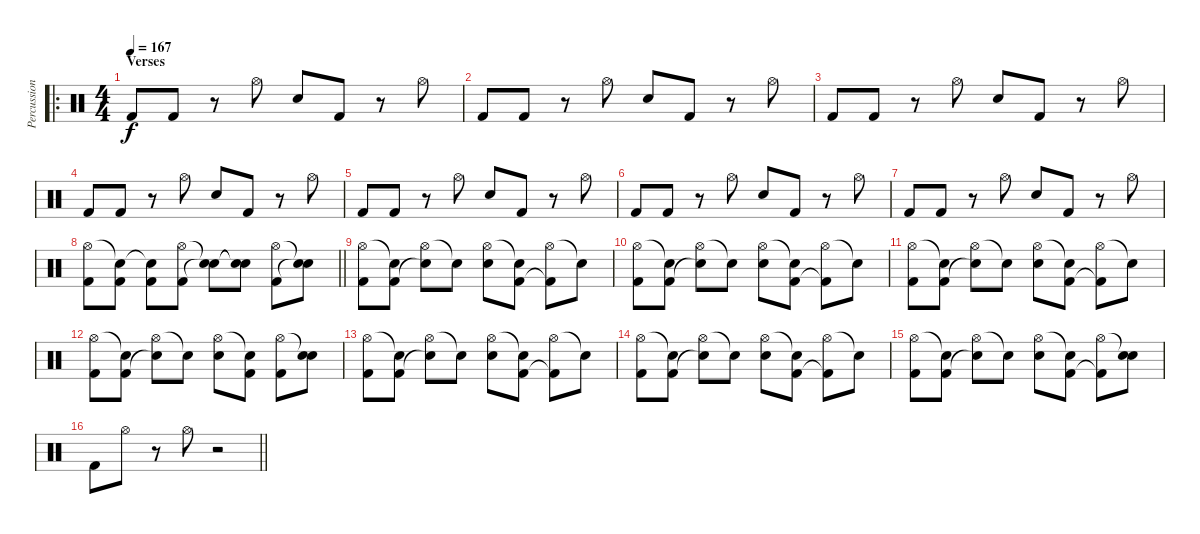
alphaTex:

\track ("Percussion" "Percussion") {instrument percussion}
\staff {score}
\articulation defaults
\ro
\ts (4 4)
\section ("" "Verses")
\tempo 167
\clef neutral
\ks c "Kick (hit) 2".8{dy f} "Kick (hit) 2".8
r.8 "Hi-Hat (open)".8 "Electric Snare (hit)".8 "Kick (hit) 2".8 r.8 "Hi-Hat (open)".8 |
"Kick (hit) 2".8 "Kick (hit) 2".8 r.8 "Hi-Hat (open)".8 "Electric Snare (hit)".8 "Kick (hit) 2".8 r.8 "Hi-Hat (open)".8 |
"Kick (hit) 2".8 "Kick (hit) 2".8 r.8 "Hi-Hat (open)".8 "Electric Snare (hit)".8 "Kick (hit) 2".8 r.8 "Hi-Hat (open)".8 |
"Kick (hit) 2".8 "Kick (hit) 2".8 r.8 "Hi-Hat (open)".8 "Electric Snare (hit)".8 "Kick (hit) 2".8 r.8 "Hi-Hat (open)".8 |
"Kick (hit) 2".8 "Kick (hit) 2".8 r.8 "Hi-Hat (open)".8 "Electric Snare (hit)".8 "Kick (hit) 2".8 r.8 "Hi-Hat (open)".8 |
"Kick (hit) 2".8 "Kick (hit) 2".8 r.8 "Hi-Hat (open)".8 "Electric Snare (hit)".8 "Kick (hit) 2".8 r.8 "Hi-Hat (open)".8 |
"Kick (hit) 2".8 "Kick (hit) 2".8 r.8 "Hi-Hat (open)".8 "Electric Snare (hit)".8 "Kick (hit) 2".8 r.8 "Hi-Hat (open)".8 |
\barLineRight lightlight
("Hi-Hat (open)" "Kick (hit) 2").8 ("Snare (hit)"{t} "Kick (hit) 2").8 ("Snare (hit)"{t} "Kick (hit) 2").8 ("Hi-Hat (open)" "Kick (hit) 2").8 ("Snare (hit)"{t} "Snare (hit)"{t}).8 ("Snare (hit)"{t} "Snare (hit)"{t}).8 ("Hi-Hat (open)" "Kick (hit) 2").8 ("Snare (hit)"{t} "Snare (hit)"{t}).8 |
("Hi-Hat (open)" "Kick (hit) 2").8 ("Snare (hit)"{t} "Kick (hit) 2").8 ("Hi-Hat (open)" "Snare (hit)"{t}).8 "Snare (hit)"{t}.8 ("Hi-Hat (open)" "Electric Snare (hit)").8 ("Snare (hit)"{t} "Kick (hit) 2").8 ("Hi-Hat (open)" "Kick (hit) 2"{t}).8 "Snare (hit)"{t}.8 |
("Hi-Hat (open)" "Kick (hit) 2").8 ("Snare (hit)"{t} "Kick (hit) 2").8 ("Hi-Hat (open)" "Snare (hit)"{t}).8 "Snare (hit)"{t}.8 ("Hi-Hat (open)" "Electric Snare (hit)").8 ("Snare (hit)"{t} "Kick (hit) 2").8 ("Hi-Hat (open)" "Kick (hit) 2"{t}).8 "Snare (hit)"{t}.8 |
("Hi-Hat (open)" "Kick (hit) 2").8 ("Snare (hit)"{t} "Kick (hit) 2").8 ("Hi-Hat (open)" "Snare (hit)"{t}).8 "Snare (hit)"{t}.8 ("Hi-Hat (open)" "Electric Snare (hit)").8 ("Snare (hit)"{t} "Kick (hit) 2").8 ("Hi-Hat (open)" "Kick (hit) 2"{t}).8 "Snare (hit)"{t}.8 |
("Hi-Hat (open)" "Kick (hit) 2").8 ("Snare (hit)"{t} "Kick (hit) 2").8 ("Hi-Hat (open)" "Snare (hit)"{t}).8 "Snare (hit)"{t}.8 ("Hi-Hat (open)" "Electric Snare (hit)").8 ("Snare (hit)"{t} "Kick (hit) 2").8 ("Hi-Hat (open)" "Kick (hit) 2").8 ("Snare (hit)"{t} "Electric Snare (hit)").8 |
("Hi-Hat (open)" "Kick (hit) 2").8 ("Snare (hit)"{t} "Kick (hit) 2").8 ("Hi-Hat (open)" "Snare (hit)"{t}).8 "Snare (hit)"{t}.8 ("Hi-Hat (open)" "Electric Snare (hit)").8 ("Snare (hit)"{t} "Kick (hit) 2").8 ("Hi-Hat (open)" "Kick (hit) 2"{t}).8 "Snare (hit)"{t}.8 |
("Hi-Hat (open)" "Kick (hit) 2").8 ("Snare (hit)"{t} "Kick (hit) 2").8 ("Hi-Hat (open)" "Snare (hit)"{t}).8 "Snare (hit)"{t}.8 ("Hi-Hat (open)" "Electric Snare (hit)").8 ("Snare (hit)"{t} "Kick (hit) 2").8 ("Hi-Hat (open)" "Kick (hit) 2"{t}).8 "Snare (hit)"{t}.8 |
("Hi-Hat (open)" "Kick (hit) 2").8 ("Snare (hit)"{t} "Kick (hit) 2").8 ("Hi-Hat (open)" "Snare (hit)"{t}).8 "Snare (hit)"{t}.8 ("Hi-Hat (open)" "Electric Snare (hit)").8 ("Snare (hit)"{t} "Kick (hit) 2").8 ("Hi-Hat (open)" "Kick (hit) 2"{t}).8 ("Snare (hit)"{t} "Electric Snare (hit)").8 |
\barLineRight lightlight "Kick (hit) 2".8 "Hi-Hat (open)".8
r.8 "Hi-Hat (open)".8 r.2
